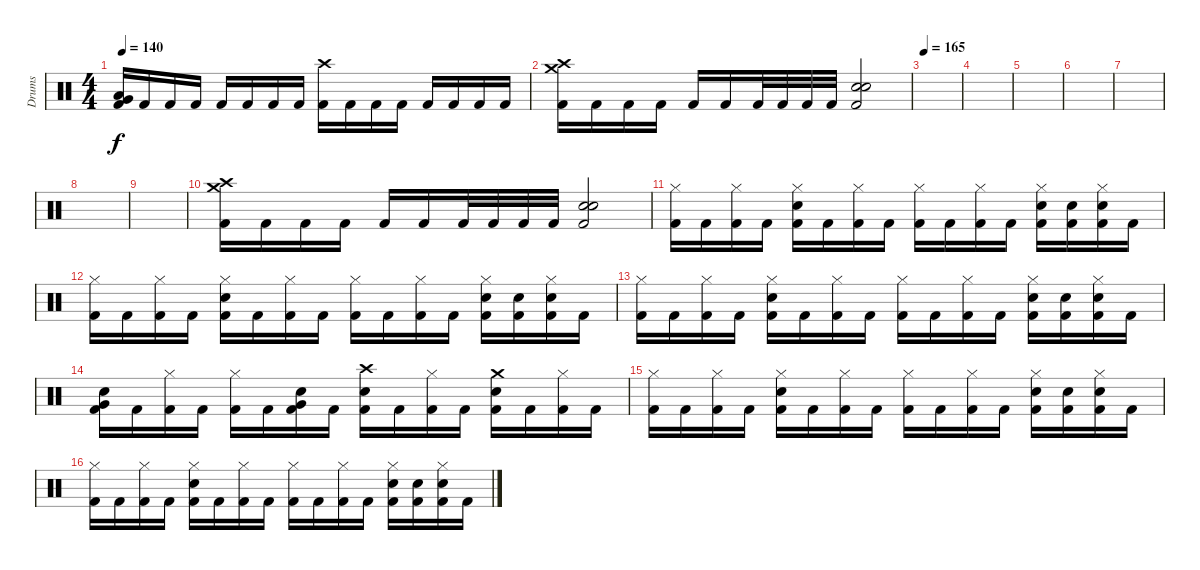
\track ("Drums" "Drums") {instrument percussion}
\staff {score}
\articulation defaults
\ts (4 4)
\tempo 140
\clef neutral
\ks c
("Kick (hit) 2" "Very Low Tom (hit)" "Low Tom (hit)").16{dy f} "Kick (hit) 2".16 "Kick (hit) 2".16 "Kick (hit) 2".16 "Kick (hit) 2".16 "Kick (hit) 2".16 "Kick (hit) 2".16 "Kick (hit) 2".16 ("Kick (hit) 2" "Crash high (hit)").16 "Kick (hit) 2".16 "Kick (hit) 2".16 "Kick (hit) 2".16 "Kick (hit) 2".16 "Kick (hit) 2".16 "Kick (hit) 2".16 "Kick (hit) 2".16 |
("Kick (hit) 2" "Crash high (hit)" "Crash medium (hit)").16 "Kick (hit) 2".16 "Kick (hit) 2".16 "Kick (hit) 2".16 "Kick (hit) 2".16 "Kick (hit) 2".16 "Kick (hit) 2".32 "Kick (hit) 2".32 "Kick (hit) 2".32 "Kick (hit) 2".32 ("Kick (hit) 2" "Snare (hit) 2" "Snare (hit) 2").2 |
\tempo 165
|
|
|
|
|
|
|
("Kick (hit) 2" "Crash high (hit)" "Crash medium (hit)").16 "Kick (hit) 2".16 "Kick (hit) 2".16 "Kick (hit) 2".16 "Kick (hit) 2".16 "Kick (hit) 2".16 "Kick (hit) 2".32 "Kick (hit) 2".32 "Kick (hit) 2".32 "Kick (hit) 2".32 ("Kick (hit) 2" "Snare (hit) 2" "Snare (hit) 2").2 |
("Kick (hit) 2" "Hi-Hat (closed)").16 "Kick (hit) 2".16 ("Kick (hit) 2" "Hi-Hat (closed)").16 "Kick (hit) 2".16 ("Kick (hit) 2" "Hi-Hat (closed)" "Snare (hit) 2").16 "Kick (hit) 2".16 ("Kick (hit) 2" "Hi-Hat (closed)").16 "Kick (hit) 2".16 ("Kick (hit) 2" "Hi-Hat (closed)").16 "Kick (hit) 2".16 ("Kick (hit) 2" "Hi-Hat (closed)").16 "Kick (hit) 2".16 ("Kick (hit) 2" "Hi-Hat (closed)" "Snare (hit) 2").16 ("Kick (hit) 2" "Snare (hit) 2").16 ("Kick (hit) 2" "Hi-Hat (closed)" "Snare (hit) 2").16 "Kick (hit) 2".16 |
("Kick (hit) 2" "Hi-Hat (closed)").16 "Kick (hit) 2".16 ("Kick (hit) 2" "Hi-Hat (closed)").16 "Kick (hit) 2".16 ("Kick (hit) 2" "Hi-Hat (closed)" "Snare (hit) 2").16 "Kick (hit) 2".16 ("Kick (hit) 2" "Hi-Hat (closed)").16 "Kick (hit) 2".16 ("Kick (hit) 2" "Hi-Hat (closed)").16 "Kick (hit) 2".16 ("Kick (hit) 2" "Hi-Hat (closed)").16 "Kick (hit) 2".16 ("Kick (hit) 2" "Hi-Hat (closed)" "Snare (hit) 2").16 ("Kick (hit) 2" "Snare (hit) 2").16 ("Kick (hit) 2" "Hi-Hat (closed)" "Snare (hit) 2").16 "Kick (hit) 2".16 |
("Kick (hit) 2" "Hi-Hat (closed)").16 "Kick (hit) 2".16 ("Kick (hit) 2" "Hi-Hat (closed)").16 "Kick (hit) 2".16 ("Kick (hit) 2" "Hi-Hat (closed)" "Snare (hit) 2").16 "Kick (hit) 2".16 ("Kick (hit) 2" "Hi-Hat (closed)").16 "Kick (hit) 2".16 ("Kick (hit) 2" "Hi-Hat (closed)").16 "Kick (hit) 2".16 ("Kick (hit) 2" "Hi-Hat (closed)").16 "Kick (hit) 2".16 ("Kick (hit) 2" "Hi-Hat (closed)" "Snare (hit) 2").16 ("Kick (hit) 2" "Snare (hit) 2").16 ("Kick (hit) 2" "Hi-Hat (closed)" "Snare (hit) 2").16 "Kick (hit) 2".16 |
("Kick (hit) 2" "Snare (hit) 2" "Very Low Tom (hit)").16 "Kick (hit) 2".16 ("Kick (hit) 2" "Hi-Hat (closed)").16 "Kick (hit) 2".16 ("Kick (hit) 2" "Hi-Hat (closed)").16 "Kick (hit) 2".16 ("Kick (hit) 2" "Snare (hit) 2" "Very Low Tom (hit)").16 "Kick (hit) 2".16 ("Kick (hit) 2" "Snare (hit) 2" "Crash high (hit)").16 "Kick (hit) 2".16 ("Kick (hit) 2" "Hi-Hat (closed)").16 "Kick (hit) 2".16 ("Kick (hit) 2" "Snare (hit) 2" "Crash medium (hit)").16 "Kick (hit) 2".16 ("Kick (hit) 2" "Hi-Hat (closed)").16 "Kick (hit) 2".16 |
("Kick (hit) 2" "Hi-Hat (closed)").16 "Kick (hit) 2".16 ("Kick (hit) 2" "Hi-Hat (closed)").16 "Kick (hit) 2".16 ("Kick (hit) 2" "Hi-Hat (closed)" "Snare (hit) 2").16 "Kick (hit) 2".16 ("Kick (hit) 2" "Hi-Hat (closed)").16 "Kick (hit) 2".16 ("Kick (hit) 2" "Hi-Hat (closed)").16 "Kick (hit) 2".16 ("Kick (hit) 2" "Hi-Hat (closed)").16 "Kick (hit) 2".16 ("Kick (hit) 2" "Hi-Hat (closed)" "Snare (hit) 2").16 ("Kick (hit) 2" "Snare (hit) 2").16 ("Kick (hit) 2" "Hi-Hat (closed)" "Snare (hit) 2").16 "Kick (hit) 2".16 |
("Kick (hit) 2" "Hi-Hat (closed)").16 "Kick (hit) 2".16 ("Kick (hit) 2" "Hi-Hat (closed)").16 "Kick (hit) 2".16 ("Kick (hit) 2" "Hi-Hat (closed)" "Snare (hit) 2").16 "Kick (hit) 2".16 ("Kick (hit) 2" "Hi-Hat (closed)").16 "Kick (hit) 2".16 ("Kick (hit) 2" "Hi-Hat (closed)").16 "Kick (hit) 2".16 ("Kick (hit) 2" "Hi-Hat (closed)").16 "Kick (hit) 2".16 ("Kick (hit) 2" "Hi-Hat (closed)" "Snare (hit) 2").16 ("Kick (hit) 2" "Snare (hit) 2").16 ("Kick (hit) 2" "Hi-Hat (closed)" "Snare (hit) 2").16 "Kick (hit) 2".16
